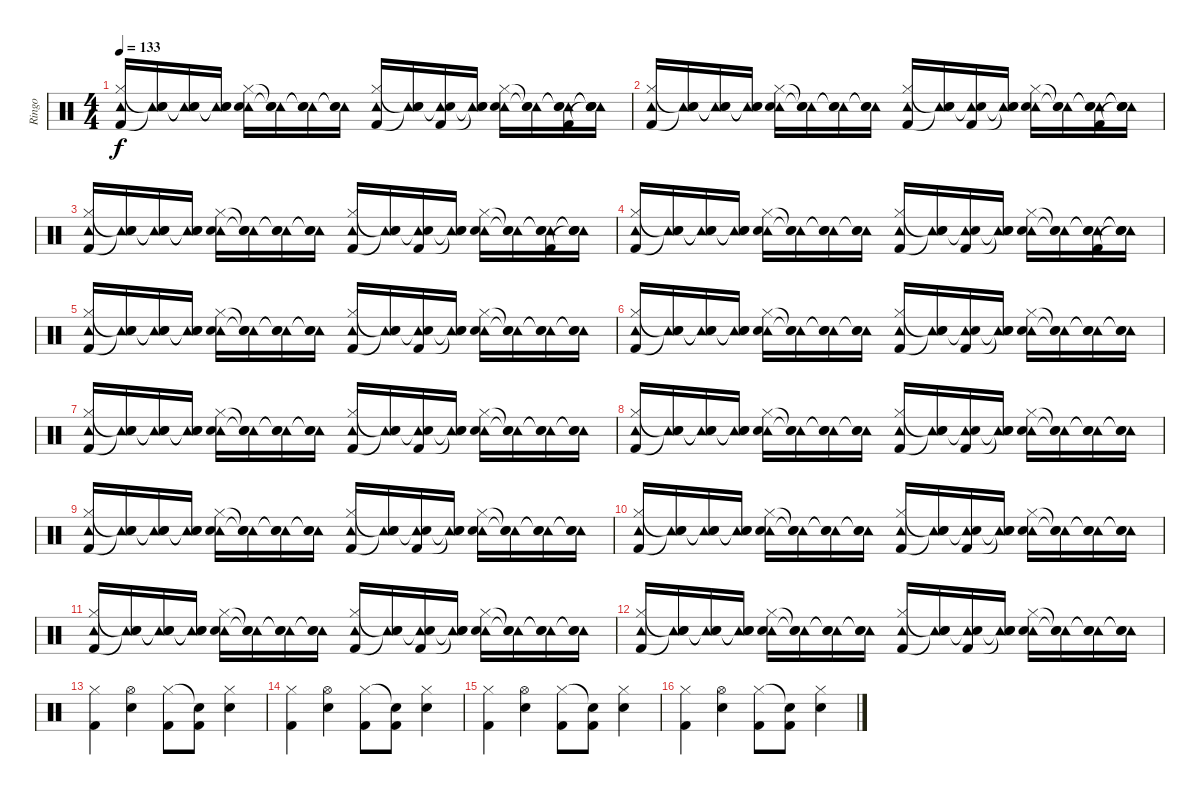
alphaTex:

\track ("Ringo" "Ringo") {instrument percussion}
\staff {score}
\articulation defaults
\ts (4 4)
\tempo 133
\clef neutral
\ks c
("Tambourine (hit)" "Hi-Hat (closed)" "Kick (hit) 2").16{dy f} ("Tambourine (hit)" "Snare (hit)"{t} "Snare (hit)"{t}).16 ("Tambourine (hit)" "Snare (hit)"{t} "Snare (hit)"{t}).16 ("Tambourine (hit)" "Snare (hit)"{t} "Snare (hit)"{t}).16 ("Tambourine (hit)" "Hi-Hat (closed)" "Snare (hit) 2").16 ("Tambourine (hit)" "Snare (hit)"{t} "Snare (hit)"{t}).16 ("Tambourine (hit)" "Snare (hit)"{t} "Snare (hit)"{t}).16 ("Tambourine (hit)" "Snare (hit)"{t} "Snare (hit)"{t}).16 ("Tambourine (hit)" "Hi-Hat (closed)" "Kick (hit) 2").16 ("Tambourine (hit)" "Snare (hit)"{t} "Snare (hit)"{t}).16 ("Tambourine (hit)" "Snare (hit)"{t} "Kick (hit) 2").16 ("Tambourine (hit)" "Snare (hit)"{t} "Snare (hit)"{t}).16 ("Tambourine (hit)" "Hi-Hat (closed)" "Snare (hit) 2").16 ("Tambourine (hit)" "Snare (hit)"{t} "Snare (hit)"{t}).16 ("Tambourine (hit)" "Snare (hit)"{t} "Snare (hit)"{t} "Kick (hit) 2").16 ("Tambourine (hit)" "Snare (hit)"{t} "Snare (hit)"{t} "Snare (hit)"{t}).16 |
("Tambourine (hit)" "Hi-Hat (closed)" "Kick (hit) 2").16 ("Tambourine (hit)" "Snare (hit)"{t} "Snare (hit)"{t}).16 ("Tambourine (hit)" "Snare (hit)"{t} "Snare (hit)"{t}).16 ("Tambourine (hit)" "Snare (hit)"{t} "Snare (hit)"{t}).16 ("Tambourine (hit)" "Hi-Hat (closed)" "Snare (hit) 2").16 ("Tambourine (hit)" "Snare (hit)"{t} "Snare (hit)"{t}).16 ("Tambourine (hit)" "Snare (hit)"{t} "Snare (hit)"{t}).16 ("Tambourine (hit)" "Snare (hit)"{t} "Snare (hit)"{t}).16 ("Tambourine (hit)" "Hi-Hat (closed)" "Kick (hit) 2").16 ("Tambourine (hit)" "Snare (hit)"{t} "Snare (hit)"{t}).16 ("Tambourine (hit)" "Snare (hit)"{t} "Kick (hit) 2").16 ("Tambourine (hit)" "Snare (hit)"{t} "Snare (hit)"{t}).16 ("Tambourine (hit)" "Hi-Hat (closed)" "Snare (hit) 2").16 ("Tambourine (hit)" "Snare (hit)"{t} "Snare (hit)"{t}).16 ("Tambourine (hit)" "Snare (hit)"{t} "Snare (hit)"{t} "Kick (hit) 2").16 ("Tambourine (hit)" "Snare (hit)"{t} "Snare (hit)"{t} "Snare (hit)"{t}).16 |
("Tambourine (hit)" "Hi-Hat (closed)" "Kick (hit) 2").16 ("Tambourine (hit)" "Snare (hit)"{t} "Snare (hit)"{t}).16 ("Tambourine (hit)" "Snare (hit)"{t} "Snare (hit)"{t}).16 ("Tambourine (hit)" "Snare (hit)"{t} "Snare (hit)"{t}).16 ("Tambourine (hit)" "Hi-Hat (closed)" "Snare (hit) 2").16 ("Tambourine (hit)" "Snare (hit)"{t} "Snare (hit)"{t}).16 ("Tambourine (hit)" "Snare (hit)"{t} "Snare (hit)"{t}).16 ("Tambourine (hit)" "Snare (hit)"{t} "Snare (hit)"{t}).16 ("Tambourine (hit)" "Hi-Hat (closed)" "Kick (hit) 2").16 ("Tambourine (hit)" "Snare (hit)"{t} "Snare (hit)"{t}).16 ("Tambourine (hit)" "Snare (hit)"{t} "Kick (hit) 2").16 ("Tambourine (hit)" "Snare (hit)"{t} "Snare (hit)"{t}).16 ("Tambourine (hit)" "Hi-Hat (closed)" "Snare (hit) 2").16 ("Tambourine (hit)" "Snare (hit)"{t} "Snare (hit)"{t}).16 ("Tambourine (hit)" "Snare (hit)"{t} "Snare (hit)"{t} "Kick (hit) 2").16 ("Tambourine (hit)" "Snare (hit)"{t} "Snare (hit)"{t} "Snare (hit)"{t}).16 |
("Tambourine (hit)" "Hi-Hat (closed)" "Kick (hit) 2").16 ("Tambourine (hit)" "Snare (hit)"{t} "Snare (hit)"{t}).16 ("Tambourine (hit)" "Snare (hit)"{t} "Snare (hit)"{t}).16 ("Tambourine (hit)" "Snare (hit)"{t} "Snare (hit)"{t}).16 ("Tambourine (hit)" "Hi-Hat (closed)" "Snare (hit) 2").16 ("Tambourine (hit)" "Snare (hit)"{t} "Snare (hit)"{t}).16 ("Tambourine (hit)" "Snare (hit)"{t} "Snare (hit)"{t}).16 ("Tambourine (hit)" "Snare (hit)"{t} "Snare (hit)"{t}).16 ("Tambourine (hit)" "Hi-Hat (closed)" "Kick (hit) 2").16 ("Tambourine (hit)" "Snare (hit)"{t} "Snare (hit)"{t}).16 ("Tambourine (hit)" "Snare (hit)"{t} "Kick (hit) 2").16 ("Tambourine (hit)" "Snare (hit)"{t} "Snare (hit)"{t}).16 ("Tambourine (hit)" "Hi-Hat (closed)" "Snare (hit) 2").16 ("Tambourine (hit)" "Snare (hit)"{t} "Snare (hit)"{t}).16 ("Tambourine (hit)" "Snare (hit)"{t} "Snare (hit)"{t} "Kick (hit) 2").16 ("Tambourine (hit)" "Snare (hit)"{t} "Snare (hit)"{t} "Snare (hit)"{t}).16 |
("Tambourine (hit)" "Hi-Hat (closed)" "Kick (hit) 2").16 ("Tambourine (hit)" "Snare (hit)"{t} "Snare (hit)"{t}).16 ("Tambourine (hit)" "Snare (hit)"{t} "Snare (hit)"{t}).16 ("Tambourine (hit)" "Snare (hit)"{t} "Snare (hit)"{t}).16 ("Tambourine (hit)" "Hi-Hat (closed)" "Snare (hit) 2").16 ("Tambourine (hit)" "Snare (hit)"{t} "Snare (hit)"{t}).16 ("Tambourine (hit)" "Snare (hit)"{t} "Snare (hit)"{t}).16 ("Tambourine (hit)" "Snare (hit)"{t} "Snare (hit)"{t}).16 ("Tambourine (hit)" "Hi-Hat (closed)" "Kick (hit) 2").16 ("Tambourine (hit)" "Snare (hit)"{t} "Snare (hit)"{t}).16 ("Tambourine (hit)" "Snare (hit)"{t} "Kick (hit) 2").16 ("Tambourine (hit)" "Snare (hit)"{t} "Snare (hit)"{t}).16 ("Tambourine (hit)" "Hi-Hat (closed)" "Snare (hit) 2").16 ("Tambourine (hit)" "Snare (hit)"{t} "Snare (hit)"{t}).16 ("Tambourine (hit)" "Snare (hit)"{t} "Snare (hit)"{t}).16 ("Tambourine (hit)" "Snare (hit)"{t} "Snare (hit)"{t}).16 |
("Tambourine (hit)" "Hi-Hat (closed)" "Kick (hit) 2").16 ("Tambourine (hit)" "Snare (hit)"{t} "Snare (hit)"{t}).16 ("Tambourine (hit)" "Snare (hit)"{t} "Snare (hit)"{t}).16 ("Tambourine (hit)" "Snare (hit)"{t} "Snare (hit)"{t}).16 ("Tambourine (hit)" "Hi-Hat (closed)" "Snare (hit) 2").16 ("Tambourine (hit)" "Snare (hit)"{t} "Snare (hit)"{t}).16 ("Tambourine (hit)" "Snare (hit)"{t} "Snare (hit)"{t}).16 ("Tambourine (hit)" "Snare (hit)"{t} "Snare (hit)"{t}).16 ("Tambourine (hit)" "Hi-Hat (closed)" "Kick (hit) 2").16 ("Tambourine (hit)" "Snare (hit)"{t} "Snare (hit)"{t}).16 ("Tambourine (hit)" "Snare (hit)"{t} "Kick (hit) 2").16 ("Tambourine (hit)" "Snare (hit)"{t} "Snare (hit)"{t}).16 ("Tambourine (hit)" "Hi-Hat (closed)" "Snare (hit) 2").16 ("Tambourine (hit)" "Snare (hit)"{t} "Snare (hit)"{t}).16 ("Tambourine (hit)" "Snare (hit)"{t} "Snare (hit)"{t}).16 ("Tambourine (hit)" "Snare (hit)"{t} "Snare (hit)"{t}).16 |
("Tambourine (hit)" "Hi-Hat (closed)" "Kick (hit) 2").16 ("Tambourine (hit)" "Snare (hit)"{t} "Snare (hit)"{t}).16 ("Tambourine (hit)" "Snare (hit)"{t} "Snare (hit)"{t}).16 ("Tambourine (hit)" "Snare (hit)"{t} "Snare (hit)"{t}).16 ("Tambourine (hit)" "Hi-Hat (closed)" "Snare (hit) 2").16 ("Tambourine (hit)" "Snare (hit)"{t} "Snare (hit)"{t}).16 ("Tambourine (hit)" "Snare (hit)"{t} "Snare (hit)"{t}).16 ("Tambourine (hit)" "Snare (hit)"{t} "Snare (hit)"{t}).16 ("Tambourine (hit)" "Hi-Hat (closed)" "Kick (hit) 2").16 ("Tambourine (hit)" "Snare (hit)"{t} "Snare (hit)"{t}).16 ("Tambourine (hit)" "Snare (hit)"{t} "Kick (hit) 2").16 ("Tambourine (hit)" "Snare (hit)"{t} "Snare (hit)"{t}).16 ("Tambourine (hit)" "Hi-Hat (closed)" "Snare (hit) 2").16 ("Tambourine (hit)" "Snare (hit)"{t} "Snare (hit)"{t}).16 ("Tambourine (hit)" "Snare (hit)"{t} "Snare (hit)"{t}).16 ("Tambourine (hit)" "Snare (hit)"{t} "Snare (hit)"{t}).16 |
("Tambourine (hit)" "Hi-Hat (closed)" "Kick (hit) 2").16 ("Tambourine (hit)" "Snare (hit)"{t} "Snare (hit)"{t}).16 ("Tambourine (hit)" "Snare (hit)"{t} "Snare (hit)"{t}).16 ("Tambourine (hit)" "Snare (hit)"{t} "Snare (hit)"{t}).16 ("Tambourine (hit)" "Hi-Hat (closed)" "Snare (hit) 2").16 ("Tambourine (hit)" "Snare (hit)"{t} "Snare (hit)"{t}).16 ("Tambourine (hit)" "Snare (hit)"{t} "Snare (hit)"{t}).16 ("Tambourine (hit)" "Snare (hit)"{t} "Snare (hit)"{t}).16 ("Tambourine (hit)" "Hi-Hat (closed)" "Kick (hit) 2").16 ("Tambourine (hit)" "Snare (hit)"{t} "Snare (hit)"{t}).16 ("Tambourine (hit)" "Snare (hit)"{t} "Kick (hit) 2").16 ("Tambourine (hit)" "Snare (hit)"{t} "Snare (hit)"{t}).16 ("Tambourine (hit)" "Hi-Hat (closed)" "Snare (hit) 2").16 ("Tambourine (hit)" "Snare (hit)"{t} "Snare (hit)"{t}).16 ("Tambourine (hit)" "Snare (hit)"{t} "Snare (hit)"{t}).16 ("Tambourine (hit)" "Snare (hit)"{t} "Snare (hit)"{t}).16 |
("Tambourine (hit)" "Hi-Hat (closed)" "Kick (hit) 2").16 ("Tambourine (hit)" "Snare (hit)"{t} "Snare (hit)"{t}).16 ("Tambourine (hit)" "Snare (hit)"{t} "Snare (hit)"{t}).16 ("Tambourine (hit)" "Snare (hit)"{t} "Snare (hit)"{t}).16 ("Tambourine (hit)" "Hi-Hat (closed)" "Snare (hit) 2").16 ("Tambourine (hit)" "Snare (hit)"{t} "Snare (hit)"{t}).16 ("Tambourine (hit)" "Snare (hit)"{t} "Snare (hit)"{t}).16 ("Tambourine (hit)" "Snare (hit)"{t} "Snare (hit)"{t}).16 ("Tambourine (hit)" "Hi-Hat (closed)" "Kick (hit) 2").16 ("Tambourine (hit)" "Snare (hit)"{t} "Snare (hit)"{t}).16 ("Tambourine (hit)" "Snare (hit)"{t} "Kick (hit) 2").16 ("Tambourine (hit)" "Snare (hit)"{t} "Snare (hit)"{t}).16 ("Tambourine (hit)" "Hi-Hat (closed)" "Snare (hit) 2").16 ("Tambourine (hit)" "Snare (hit)"{t} "Snare (hit)"{t}).16 ("Tambourine (hit)" "Snare (hit)"{t} "Snare (hit)"{t}).16 ("Tambourine (hit)" "Snare (hit)"{t} "Snare (hit)"{t}).16 |
("Tambourine (hit)" "Hi-Hat (closed)" "Kick (hit) 2").16 ("Tambourine (hit)" "Snare (hit)"{t} "Snare (hit)"{t}).16 ("Tambourine (hit)" "Snare (hit)"{t} "Snare (hit)"{t}).16 ("Tambourine (hit)" "Snare (hit)"{t} "Snare (hit)"{t}).16 ("Tambourine (hit)" "Hi-Hat (closed)" "Snare (hit) 2").16 ("Tambourine (hit)" "Snare (hit)"{t} "Snare (hit)"{t}).16 ("Tambourine (hit)" "Snare (hit)"{t} "Snare (hit)"{t}).16 ("Tambourine (hit)" "Snare (hit)"{t} "Snare (hit)"{t}).16 ("Tambourine (hit)" "Hi-Hat (closed)" "Kick (hit) 2").16 ("Tambourine (hit)" "Snare (hit)"{t} "Snare (hit)"{t}).16 ("Tambourine (hit)" "Snare (hit)"{t} "Kick (hit) 2").16 ("Tambourine (hit)" "Snare (hit)"{t} "Snare (hit)"{t}).16 ("Tambourine (hit)" "Hi-Hat (closed)" "Snare (hit) 2").16 ("Tambourine (hit)" "Snare (hit)"{t} "Snare (hit)"{t}).16 ("Tambourine (hit)" "Snare (hit)"{t} "Snare (hit)"{t}).16 ("Tambourine (hit)" "Snare (hit)"{t} "Snare (hit)"{t}).16 |
("Tambourine (hit)" "Hi-Hat (closed)" "Kick (hit) 2").16 ("Tambourine (hit)" "Snare (hit)"{t} "Snare (hit)"{t}).16 ("Tambourine (hit)" "Snare (hit)"{t} "Snare (hit)"{t}).16 ("Tambourine (hit)" "Snare (hit)"{t} "Snare (hit)"{t}).16 ("Tambourine (hit)" "Hi-Hat (closed)" "Snare (hit) 2").16 ("Tambourine (hit)" "Snare (hit)"{t} "Snare (hit)"{t}).16 ("Tambourine (hit)" "Snare (hit)"{t} "Snare (hit)"{t}).16 ("Tambourine (hit)" "Snare (hit)"{t} "Snare (hit)"{t}).16 ("Tambourine (hit)" "Hi-Hat (closed)" "Kick (hit) 2").16 ("Tambourine (hit)" "Snare (hit)"{t} "Snare (hit)"{t}).16 ("Tambourine (hit)" "Snare (hit)"{t} "Kick (hit) 2").16 ("Tambourine (hit)" "Snare (hit)"{t} "Snare (hit)"{t}).16 ("Tambourine (hit)" "Hi-Hat (closed)" "Snare (hit) 2").16 ("Tambourine (hit)" "Snare (hit)"{t} "Snare (hit)"{t}).16 ("Tambourine (hit)" "Snare (hit)"{t} "Snare (hit)"{t}).16 ("Tambourine (hit)" "Snare (hit)"{t} "Snare (hit)"{t}).16 |
("Tambourine (hit)" "Hi-Hat (closed)" "Kick (hit) 2").16 ("Tambourine (hit)" "Snare (hit)"{t} "Snare (hit)"{t}).16 ("Tambourine (hit)" "Snare (hit)"{t} "Snare (hit)"{t}).16 ("Tambourine (hit)" "Snare (hit)"{t} "Snare (hit)"{t}).16 ("Tambourine (hit)" "Hi-Hat (closed)" "Snare (hit) 2").16 ("Tambourine (hit)" "Snare (hit)"{t} "Snare (hit)"{t}).16 ("Tambourine (hit)" "Snare (hit)"{t} "Snare (hit)"{t}).16 ("Tambourine (hit)" "Snare (hit)"{t} "Snare (hit)"{t}).16 ("Tambourine (hit)" "Hi-Hat (closed)" "Kick (hit) 2").16 ("Tambourine (hit)" "Snare (hit)"{t} "Snare (hit)"{t}).16 ("Tambourine (hit)" "Snare (hit)"{t} "Kick (hit) 2").16 ("Tambourine (hit)" "Snare (hit)"{t} "Snare (hit)"{t}).16 ("Tambourine (hit)" "Hi-Hat (closed)" "Snare (hit) 2").16 ("Tambourine (hit)" "Snare (hit)"{t} "Snare (hit)"{t}).16 ("Tambourine (hit)" "Snare (hit)"{t} "Snare (hit)"{t}).16 ("Tambourine (hit)" "Snare (hit)"{t} "Snare (hit)"{t}).16 |
("Hi-Hat (closed)" "Kick (hit) 2").4 ("Hi-Hat (open)" "Snare (hit) 2").4 ("Hi-Hat (closed)" "Kick (hit) 2").8 ("Snare (hit)"{t} "Kick (hit) 2").8 ("Hi-Hat (closed)" "Snare (hit) 2").4 |
("Hi-Hat (closed)" "Kick (hit) 2").4 ("Hi-Hat (open)" "Snare (hit) 2").4 ("Hi-Hat (closed)" "Kick (hit) 2").8 ("Snare (hit)"{t} "Kick (hit) 2").8 ("Hi-Hat (closed)" "Snare (hit) 2").4 |
("Hi-Hat (closed)" "Kick (hit) 2").4 ("Hi-Hat (open)" "Snare (hit) 2").4 ("Hi-Hat (closed)" "Kick (hit) 2").8 ("Snare (hit)"{t} "Kick (hit) 2").8 ("Hi-Hat (closed)" "Snare (hit) 2").4 |
("Hi-Hat (closed)" "Kick (hit) 2").4 ("Hi-Hat (open)" "Snare (hit) 2").4 ("Hi-Hat (closed)" "Kick (hit) 2").8 ("Snare (hit)"{t} "Kick (hit) 2").8 ("Hi-Hat (closed)" "Snare (hit) 2").4
